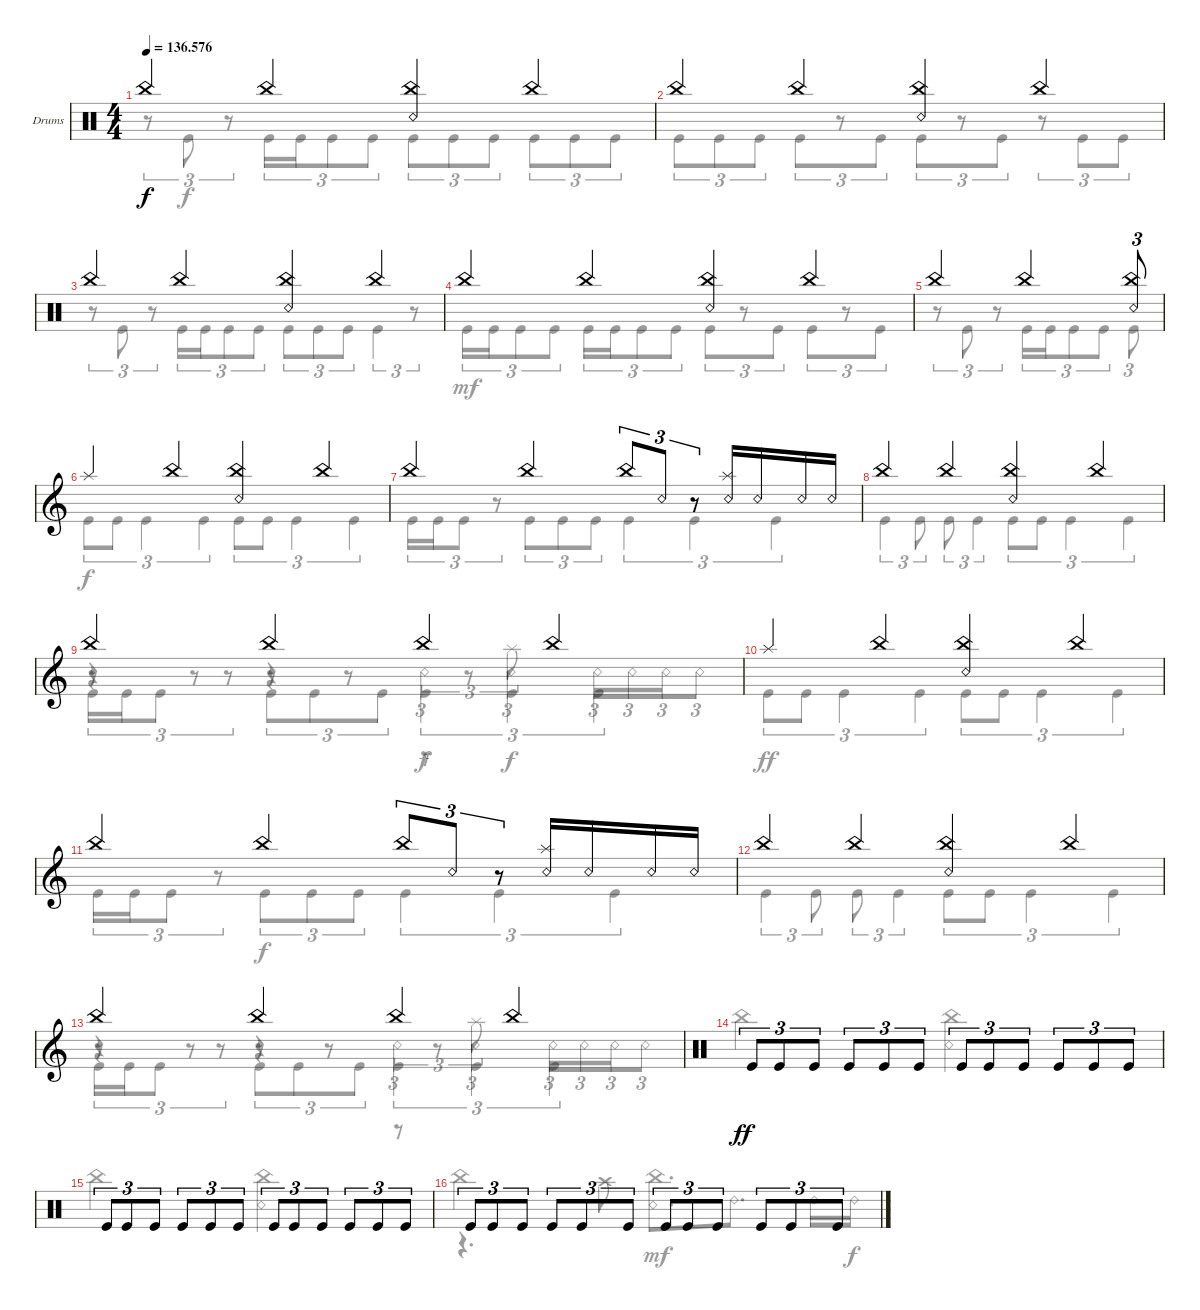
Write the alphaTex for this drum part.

\bracketExtendMode groupsimilarinstruments
\firstSystemTrackNameOrientation horizontal
\otherSystemsTrackNameOrientation horizontal
\track ("Drumkit" "Drums") {instrument percussion}
\staff {score}
\articulation defaults
\voice
\ts (4 4)
\tempo
136.576
\accidentals auto
\clef neutral
\ottava regular
\simile none
\ks c "China (hit)".4{dy f} "China (hit)".4
("China (hit)" "Snare (rim shot)").4 "China (hit)".4 |
"China (hit)".4 "China (hit)".4 ("China (hit)" "Snare (rim shot)").4 "China (hit)".4 |
"China (hit)".4 "China (hit)".4 ("China (hit)" "Snare (rim shot)").4 "China (hit)".4 |
"China (hit)".4 "China (hit)".4 ("China (hit)" "Snare (rim shot)").4 "China (hit)".4 |
"China (hit)".4 "China (hit)".4 ("China (hit)" "Snare (rim shot)").8{tu (3 2)} |
\clef g2 "Splash (hit)".4 "China (hit)".4
("China (hit)" "Snare (rim shot)").4 "China (hit)".4 |
"China (hit)".4 "China (hit)".4 "China (hit)".8{tu (3 2)} "Snare (rim shot)".8{tu (3 2)} r.8{tu (3 2)} ("Snare (rim shot)" "Splash (hit)").16 "Snare (rim shot)".16 "Snare (rim shot)".16 "Snare (rim shot)".16 |
"China (hit)".4 "China (hit)".4 ("China (hit)" "Snare (rim shot)").4 "China (hit)".4 |
"China (hit)".4 "China (hit)".4 "China (hit)".4 "China (hit)".4 |
"Splash (hit)".4 "China (hit)".4 ("China (hit)" "Snare (rim shot)").4 "China (hit)".4 |
"China (hit)".4 "China (hit)".4 "China (hit)".8{tu (3 2)} "Snare (rim shot)".8{tu (3 2)} r.8{tu (3 2)} ("Snare (rim shot)" "Splash (hit)").16 "Snare (rim shot)".16 "Snare (rim shot)".16 "Snare (rim shot)".16 |
"China (hit)".4 "China (hit)".4 ("China (hit)" "Snare (rim shot)").4 "China (hit)".4 |
"China (hit)".4 "China (hit)".4 "China (hit)".4 "China (hit)".4 |
\clef neutral "Kick (hit)".8{tu (3 2) dy ff} "Kick (hit)".8{tu (3 2)} "Kick (hit)".8{tu (3 2)} "Kick (hit)".8{tu (3 2)} "Kick (hit)".8{tu (3 2)} "Kick (hit)".8{tu (3 2)} "Kick (hit)".8{tu (3 2)} "Kick (hit)".8{tu (3 2)} "Kick (hit)".8{tu (3 2)} "Kick (hit)".8{tu (3 2)} "Kick (hit)".8{tu (3 2)} "Kick (hit)".8{tu (3 2)}
|
"Kick (hit)".8{tu (3 2)} "Kick (hit)".8{tu (3 2)} "Kick (hit)".8{tu (3 2)} "Kick (hit)".8{tu (3 2)} "Kick (hit)".8{tu (3 2)} "Kick (hit)".8{tu (3 2)} "Kick (hit)".8{tu (3 2)} "Kick (hit)".8{tu (3 2)} "Kick (hit)".8{tu (3 2)} "Kick (hit)".8{tu (3 2)} "Kick (hit)".8{tu (3 2)} "Kick (hit)".8{tu (3 2)} |
"Kick (hit)".8{tu (3 2)} "Kick (hit)".8{tu (3 2)} "Kick (hit)".8{tu (3 2)} "Kick (hit)".8{tu (3 2)} "Kick (hit)".8{tu (3 2)} "Kick (hit)".8{tu (3 2)} "Kick (hit)".8{tu (3 2)} "Kick (hit)".8{tu (3 2)} "Kick (hit)".8{tu (3 2)} "Kick (hit)".8{tu (3 2)} "Kick (hit)".8{tu (3 2)} "Kick (hit)".8{tu (3 2)}
\voice
\clef neutral
\ottava regular
\simile none
\ks c
r.8{tu (3 2) dy f} "Kick (hit)".8{tu (3 2)} r.8{tu (3 2)} "Kick (hit)".16{tu (3 2)} "Kick (hit)".16{tu (3 2)} "Kick (hit)".8{tu (3 2)} "Kick (hit)".8{tu (3 2)} "Kick (hit)".8{tu (3 2)} "Kick (hit)".8{tu (3 2)} "Kick (hit)".8{tu (3 2)} "Kick (hit)".8{tu (3 2)} "Kick (hit)".8{tu (3 2)} "Kick (hit)".8{tu (3 2)} |
"Kick (hit)".8{tu (3 2)} "Kick (hit)".8{tu (3 2)} "Kick (hit)".8{tu (3 2)} "Kick (hit)".8{tu (3 2)} r.8{tu (3 2)} "Kick (hit)".8{tu (3 2)} "Kick (hit)".8{tu (3 2)} r.8{tu (3 2)} "Kick (hit)".8{tu (3 2)} r.8{tu (3 2)} "Kick (hit)".8{tu (3 2)} "Kick (hit)".8{tu (3 2)} |
r.8{tu (3 2)} "Kick (hit)".8{tu (3 2)} r.8{tu (3 2)} "Kick (hit)".16{tu (3 2)} "Kick (hit)".16{tu (3 2)} "Kick (hit)".8{tu (3 2)} "Kick (hit)".8{tu (3 2)} "Kick (hit)".8{tu (3 2)} "Kick (hit)".8{tu (3 2)} "Kick (hit)".8{tu (3 2)} "Kick (hit)".4{tu (3 2)} r.8{tu (3 2)} |
"Kick (hit)".16{tu (3 2) dy mf} "Kick (hit)".16{tu (3 2)} "Kick (hit)".8{tu (3 2)} "Kick (hit)".8{tu (3 2)} "Kick (hit)".16{tu (3 2)} "Kick (hit)".16{tu (3 2)} "Kick (hit)".8{tu (3 2)} "Kick (hit)".8{tu (3 2)} "Kick (hit)".8{tu (3 2)} r.8{tu (3 2)} "Kick (hit)".8{tu (3 2)} "Kick (hit)".8{tu (3 2)} r.8{tu (3 2)} "Kick (hit)".8{tu (3 2)} |
r.8{tu (3 2)} "Kick (hit)".8{tu (3 2)} r.8{tu (3 2)} "Kick (hit)".16{tu (3 2)} "Kick (hit)".16{tu (3 2)} "Kick (hit)".8{tu (3 2)} "Kick (hit)".8{tu (3 2)} "Kick (hit)".8{tu (3 2)} |
\clef g2
|
|
|
r.4 r.4 "Snare (rim shot)".4{tu (3 2) dy f} "Snare (rim shot)".4{tu (3 2)} "Snare (rim shot)".16{tu (3 2)} "Snare (rim shot)".16{tu (3 2)} "Snare (rim shot)".16{tu (3 2)} "Snare (rim shot)".8{tu (3 2)} |
|
|
|
r.4 r.4 "Snare (rim shot)".4{tu (3 2)} "Snare (rim shot)".4{tu (3 2)} "Snare (rim shot)".16{tu (3 2)} "Snare (rim shot)".16{tu (3 2)} "Snare (rim shot)".16{tu (3 2)} "Snare (rim shot)".8{tu (3 2)} |
\clef neutral "China (hit)".2
("China (hit)" "Snare (rim shot)").2 |
"China (hit)".2 ("China (hit)" "Snare (rim shot)").2 |
"China (hit)".2 ("Snare (rim shot)" "China (hit)").8{d dy mf} "Ride (bell) 2".8{d} "Ride (bell) 2".16 "Ride (bell) 2".16{dy f}
\voice
\clef neutral
\ottava regular
\simile none
\ks c
|
|
|
|
|
\clef g2
|
|
|
r.8 r.8 r.8 r.8 r.8{tu (3 2)} r.8{tu (3 2)} "Splash (hit)".8{tu (3 2)} |
|
|
|
r.8 r.8 r.8 r.8 r.8{tu (3 2)} r.8{tu (3 2)} "Splash (hit)".8{tu (3 2)} |
\clef neutral
|
|
r.4{d} "Crash high (hit)".8
\voice
\clef neutral
\ottava regular
\simile none
\ks c
|
|
|
|
|
\clef g2 "Kick (hit)".8{tu (3 2)} "Kick (hit)".8{tu (3 2)} "Kick (hit)".4{tu (3 2)} "Kick (hit)".4{tu (3 2)} "Kick (hit)".8{tu (3 2)} "Kick (hit)".8{tu (3 2)} "Kick (hit)".4{tu (3 2)} "Kick (hit)".4{tu (3 2)}
|
"Kick (hit)".16{tu (3 2)} "Kick (hit)".16{tu (3 2)} "Kick (hit)".8{tu (3 2)} r.8{tu (3 2)} "Kick (hit)".8{tu (3 2) dy f} "Kick (hit)".8{tu (3 2)} "Kick (hit)".8{tu (3 2)} "Kick (hit)".4{tu (3 2)} "Kick (hit)".4{tu (3 2)} "Kick (hit)".4{tu (3 2)} |
"Kick (hit)".4{tu (3 2)} "Kick (hit)".8{tu (3 2)} "Kick (hit)".8{tu (3 2)} "Kick (hit)".4{tu (3 2)} "Kick (hit)".8{tu (3 2)} "Kick (hit)".8{tu (3 2)} "Kick (hit)".4{tu (3 2)} "Kick (hit)".4{tu (3 2)} |
"Kick (hit)".16{tu (3 2)} "Kick (hit)".16{tu (3 2)} "Kick (hit)".8{tu (3 2)} r.8{tu (3 2)} "Kick (hit)".8{tu (3 2)} "Kick (hit)".8{tu (3 2)} "Kick (hit)".8{tu (3 2)} "Kick (hit)".4{tu (3 2)} "Kick (hit)".4{tu (3 2)} "Kick (hit)".4{tu (3 2)} |
"Kick (hit)".8{tu (3 2) dy ff} "Kick (hit)".8{tu (3 2)} "Kick (hit)".4{tu (3 2)} "Kick (hit)".4{tu (3 2)} "Kick (hit)".8{tu (3 2)} "Kick (hit)".8{tu (3 2)} "Kick (hit)".4{tu (3 2)} "Kick (hit)".4{tu (3 2)} |
"Kick (hit)".16{tu (3 2)} "Kick (hit)".16{tu (3 2)} "Kick (hit)".8{tu (3 2)} r.8{tu (3 2)} "Kick (hit)".8{tu (3 2) dy f} "Kick (hit)".8{tu (3 2)} "Kick (hit)".8{tu (3 2)} "Kick (hit)".4{tu (3 2)} "Kick (hit)".4{tu (3 2)} "Kick (hit)".4{tu (3 2)} |
"Kick (hit)".4{tu (3 2)} "Kick (hit)".8{tu (3 2)} "Kick (hit)".8{tu (3 2)} "Kick (hit)".4{tu (3 2)} "Kick (hit)".8{tu (3 2)} "Kick (hit)".8{tu (3 2)} "Kick (hit)".4{tu (3 2)} "Kick (hit)".4{tu (3 2)} |
"Kick (hit)".16{tu (3 2)} "Kick (hit)".16{tu (3 2)} "Kick (hit)".8{tu (3 2)} r.8{tu (3 2)} "Kick (hit)".8{tu (3 2)} "Kick (hit)".8{tu (3 2)} "Kick (hit)".8{tu (3 2)} "Kick (hit)".4{tu (3 2)} "Kick (hit)".4{tu (3 2)} "Kick (hit)".4{tu (3 2)} |
\clef neutral
|
|
